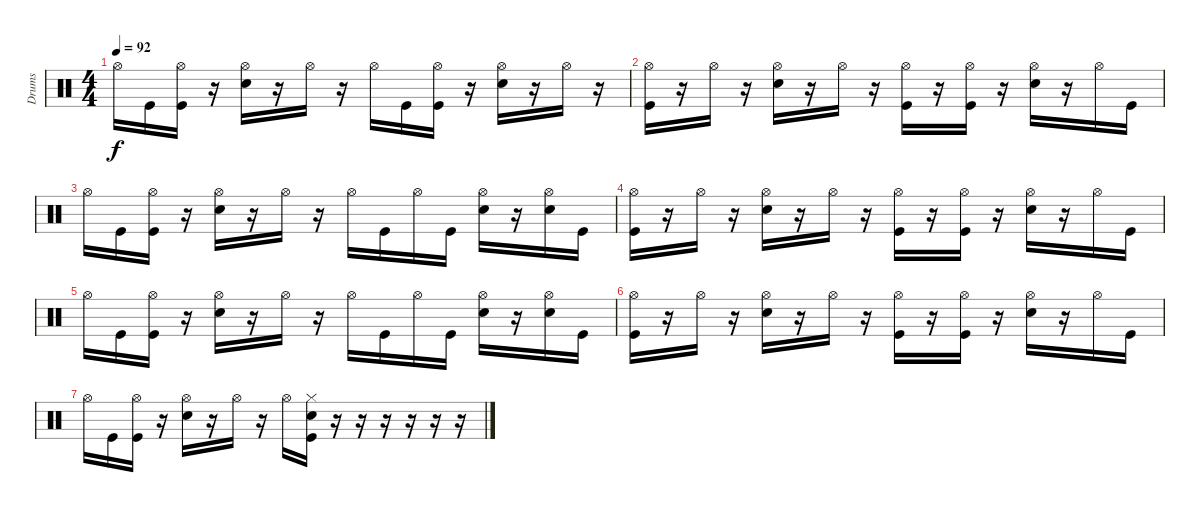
\track ("Drums" "Drums") {instrument percussion}
\staff {score}
\articulation defaults
\ts (4 4)
\tempo 92
\clef neutral
\ks c "Hi-Hat (open)".16{dy f} "Kick (hit)".16
("Hi-Hat (open)" "Kick (hit)").16 r.16 ("Hi-Hat (open)" "Snare (hit) 2").16 r.16 "Hi-Hat (open)".16 r.16 "Hi-Hat (open)".16 "Kick (hit)".16 ("Hi-Hat (open)" "Kick (hit)").16 r.16 ("Hi-Hat (open)" "Snare (hit) 2").16 r.16 "Hi-Hat (open)".16 r.16 |
("Hi-Hat (open)" "Kick (hit)").16 r.16 "Hi-Hat (open)".16 r.16 ("Hi-Hat (open)" "Snare (hit) 2").16 r.16 "Hi-Hat (open)".16 r.16 ("Hi-Hat (open)" "Kick (hit)").16 r.16 ("Hi-Hat (open)" "Kick (hit)").16 r.16 ("Hi-Hat (open)" "Snare (hit) 2").16 r.16 "Hi-Hat (open)".16 "Kick (hit)".16 |
"Hi-Hat (open)".16 "Kick (hit)".16 ("Hi-Hat (open)" "Kick (hit)").16 r.16 ("Hi-Hat (open)" "Snare (hit) 2").16 r.16 "Hi-Hat (open)".16 r.16 "Hi-Hat (open)".16 "Kick (hit)".16 "Hi-Hat (open)".16 "Kick (hit)".16 ("Hi-Hat (open)" "Snare (hit) 2").16 r.16 ("Hi-Hat (open)" "Snare (hit) 2").16 "Kick (hit)".16 |
("Hi-Hat (open)" "Kick (hit)").16 r.16 "Hi-Hat (open)".16 r.16 ("Hi-Hat (open)" "Snare (hit) 2").16 r.16 "Hi-Hat (open)".16 r.16 ("Hi-Hat (open)" "Kick (hit)").16 r.16 ("Hi-Hat (open)" "Kick (hit)").16 r.16 ("Hi-Hat (open)" "Snare (hit) 2").16 r.16 "Hi-Hat (open)".16 "Kick (hit)".16 |
"Hi-Hat (open)".16 "Kick (hit)".16 ("Hi-Hat (open)" "Kick (hit)").16 r.16 ("Hi-Hat (open)" "Snare (hit) 2").16 r.16 "Hi-Hat (open)".16 r.16 "Hi-Hat (open)".16 "Kick (hit)".16 "Hi-Hat (open)".16 "Kick (hit)".16 ("Hi-Hat (open)" "Snare (hit) 2").16 r.16 ("Hi-Hat (open)" "Snare (hit) 2").16 "Kick (hit)".16 |
("Hi-Hat (open)" "Kick (hit)").16 r.16 "Hi-Hat (open)".16 r.16 ("Hi-Hat (open)" "Snare (hit) 2").16 r.16 "Hi-Hat (open)".16 r.16 ("Hi-Hat (open)" "Kick (hit)").16 r.16 ("Hi-Hat (open)" "Kick (hit)").16 r.16 ("Hi-Hat (open)" "Snare (hit) 2").16 r.16 "Hi-Hat (open)".16 "Kick (hit)".16 |
"Hi-Hat (open)".16 "Kick (hit)".16 ("Hi-Hat (open)" "Kick (hit)").16 r.16 ("Hi-Hat (open)" "Snare (hit) 2").16 r.16 "Hi-Hat (open)".16 r.16 "Hi-Hat (open)".16 ("Hi-Hat (closed)" "Snare (hit) 2" "Kick (hit)").16 r.16 r.16 r.16 r.16 r.16 r.16
